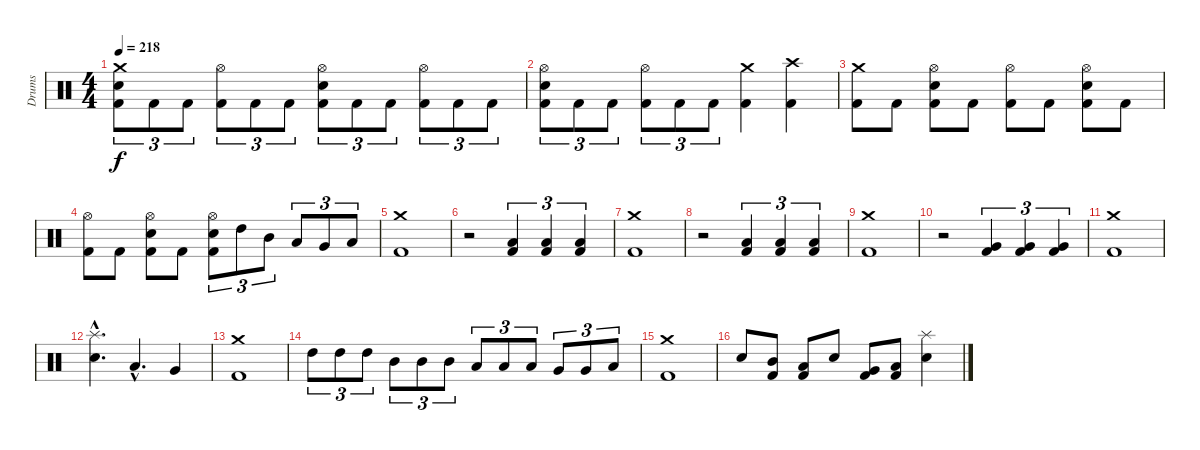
\track ("Drums" "Drums") {instrument percussion}
\staff {score}
\articulation defaults
\ts (4 4)
\tempo 218
\clef neutral
\ks c
("Crash medium (hit)" "Snare (hit) 2" "Kick (hit) 2").8{tu (3 2) dy f} "Kick (hit) 2".8{tu (3 2)} "Kick (hit) 2".8{tu (3 2)} ("Hi-Hat (open)" "Kick (hit) 2").8{tu (3 2)} "Kick (hit) 2".8{tu (3 2)} "Kick (hit) 2".8{tu (3 2)} ("Hi-Hat (open)" "Snare (hit) 2" "Kick (hit) 2").8{tu (3 2)} "Kick (hit) 2".8{tu (3 2)} "Kick (hit) 2".8{tu (3 2)} ("Hi-Hat (open)" "Kick (hit) 2").8{tu (3 2)} "Kick (hit) 2".8{tu (3 2)} "Kick (hit) 2".8{tu (3 2)} |
("Hi-Hat (open)" "Snare (hit) 2" "Kick (hit) 2").8{tu (3 2)} "Kick (hit) 2".8{tu (3 2)} "Kick (hit) 2".8{tu (3 2)} ("Hi-Hat (open)" "Kick (hit) 2").8{tu (3 2)} "Kick (hit) 2".8{tu (3 2)} "Kick (hit) 2".8{tu (3 2)} ("Crash medium (hit)" "Kick (hit) 2").4 ("Crash high (hit)" "Kick (hit) 2").4 |
("Crash medium (hit)" "Kick (hit) 2").8 "Kick (hit) 2".8 ("Hi-Hat (open)" "Snare (hit) 2" "Kick (hit) 2").8 "Kick (hit) 2".8 ("Hi-Hat (open)" "Kick (hit) 2").8 "Kick (hit) 2".8 ("Hi-Hat (open)" "Snare (hit) 2" "Kick (hit) 2").8 "Kick (hit) 2".8 |
("Hi-Hat (open)" "Kick (hit) 2").8 "Kick (hit) 2".8 ("Hi-Hat (open)" "Snare (hit) 2" "Kick (hit) 2").8 "Kick (hit) 2".8 ("Hi-Hat (open)" "Snare (hit) 2" "Kick (hit) 2").8{tu (3 2)} "High Tom (hit)".8{tu (3 2)} "Mid Tom (hit)".8{tu (3 2)} "Low Tom (hit)".8{tu (3 2)} "Very Low Tom (hit)".8{tu (3 2)} "Low Floor Tom (hit)".8{tu (3 2)} |
("Crash medium (hit)" "Kick (hit) 2").1 |
r.2 ("Low Floor Tom (hit)" "Kick (hit) 2").4{tu (3 2)} ("Low Floor Tom (hit)" "Kick (hit) 2").4{tu (3 2)} ("Low Floor Tom (hit)" "Kick (hit) 2").4{tu (3 2)} |
("Crash medium (hit)" "Kick (hit) 2").1 |
r.2 ("Low Tom (hit)" "Kick (hit) 2").4{tu (3 2)} ("Low Tom (hit)" "Kick (hit) 2").4{tu (3 2)} ("Low Tom (hit)" "Kick (hit) 2").4{tu (3 2)} |
("Crash medium (hit)" "Kick (hit) 2").1 |
r.2 ("Very Low Tom (hit)" "Kick (hit) 2").4{tu (3 2)} ("Very Low Tom (hit)" "Kick (hit) 2").4{tu (3 2)} ("Very Low Tom (hit)" "Kick (hit) 2").4{tu (3 2)} |
("Crash medium (hit)" "Kick (hit) 2").1 |
("Splash (hit)"{hac} "Snare (hit) 2"{hac}).4{d} "Low Tom (hit)"{hac}.4{d} "Very Low Tom (hit)".4 |
("Crash medium (hit)" "Kick (hit) 2").1 |
"High Tom (hit)".8{tu (3 2)} "High Tom (hit)".8{tu (3 2)} "High Tom (hit)".8{tu (3 2)} "Mid Tom (hit)".8{tu (3 2)} "Mid Tom (hit)".8{tu (3 2)} "Mid Tom (hit)".8{tu (3 2)} "Low Tom (hit)".8{tu (3 2)} "Low Tom (hit)".8{tu (3 2)} "Low Tom (hit)".8{tu (3 2)} "Very Low Tom (hit)".8{tu (3 2)} "Very Low Tom (hit)".8{tu (3 2)} "Low Floor Tom (hit)".8{tu (3 2)} |
("Crash medium (hit)" "Kick (hit) 2").1 |
"Snare (hit) 2".8 ("Mid Tom (hit)" "Kick (hit) 2").8 ("Low Tom (hit)" "Kick (hit) 2").8 "Snare (hit) 2".8 ("Very Low Tom (hit)" "Kick (hit) 2").8 ("Low Floor Tom (hit)" "Kick (hit) 2").8 ("Splash (hit)" "Snare (hit) 2").4
